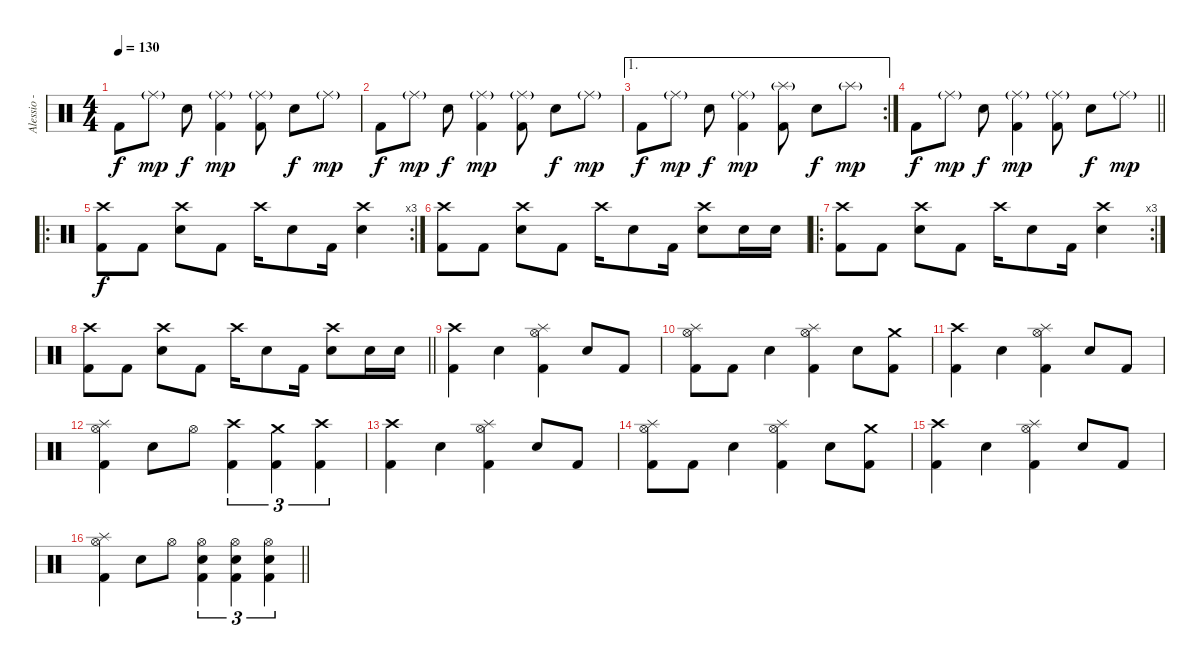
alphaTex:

\track ("Alessio - Drums" "Alessio - ") {instrument percussion}
\staff {score}
\articulation defaults
\ts (4 4)
\tempo 130
\clef neutral
\ks c "Kick (hit) 2".8{dy f} "Ride (middle)"{g}.8{dy mp} "Electric Snare (hit)".8{dy f}
("Ride (middle)"{g} "Kick (hit) 2").4{dy mp} ("Ride (middle)"{g} "Kick (hit) 2").8 "Electric Snare (hit)".8{dy f} "Ride (middle)"{g}.8{dy mp} |
"Kick (hit) 2".8{dy f} "Ride (middle)"{g}.8{dy mp} "Electric Snare (hit)".8{dy f} ("Ride (middle)"{g} "Kick (hit) 2").4{dy mp} ("Ride (middle)"{g} "Kick (hit) 2").8 "Electric Snare (hit)".8{dy f} "Ride (middle)"{g}.8{dy mp} |
\ae 1
\rc 2 "Kick (hit) 2".8{dy f} "Ride (middle)"{g}.8{dy mp} "Electric Snare (hit)".8{dy f}
("Ride (middle)"{g} "Kick (hit) 2").4{dy mp} ("Splash (hit)"{g} "Kick (hit) 2").8 "Electric Snare (hit)".8{dy f} "Splash (hit)"{g}.8{dy mp} |
\barLineRight lightlight "Kick (hit) 2".8{dy f} "Ride (middle)"{g}.8{dy mp} "Electric Snare (hit)".8{dy f}
("Ride (middle)"{g} "Kick (hit) 2").4{dy mp} ("Ride (middle)"{g} "Kick (hit) 2").8 "Electric Snare (hit)".8{dy f} "Ride (middle)"{g}.8{dy mp} |
\ro
\rc 3
\section ("" "")
("Crash high (hit)" "Kick (hit) 2").8{dy f} "Kick (hit) 2".8 ("Crash high (hit)" "Electric Snare (hit)").8 "Kick (hit) 2".8 "Crash high (hit)".16 "Electric Snare (hit)".8 "Kick (hit) 2".16 ("Crash high (hit)" "Electric Snare (hit)").4 |
("Crash high (hit)" "Kick (hit) 2").8 "Kick (hit) 2".8 ("Crash high (hit)" "Electric Snare (hit)").8 "Kick (hit) 2".8 "Crash high (hit)".16 "Electric Snare (hit)".8 "Kick (hit) 2".16 ("Crash high (hit)" "Electric Snare (hit)").8 "Electric Snare (hit)".16 "Electric Snare (hit)".16 |
\ro
\rc 3
("Crash high (hit)" "Kick (hit) 2").8 "Kick (hit) 2".8 ("Crash high (hit)" "Electric Snare (hit)").8 "Kick (hit) 2".8 "Crash high (hit)".16 "Electric Snare (hit)".8 "Kick (hit) 2".16 ("Crash high (hit)" "Electric Snare (hit)").4 |
\barLineRight lightlight
("Crash high (hit)" "Kick (hit) 2").8 "Kick (hit) 2".8 ("Crash high (hit)" "Electric Snare (hit)").8 "Kick (hit) 2".8 "Crash high (hit)".16 "Electric Snare (hit)".8 "Kick (hit) 2".16 ("Crash high (hit)" "Electric Snare (hit)").8 "Electric Snare (hit)".16 "Electric Snare (hit)".16 |
\section ("" "")
("Crash high (hit)" "Kick (hit) 2").4 "Electric Snare (hit)".4 ("Splash (hit)" "Hi-Hat (open)" "Kick (hit) 2").4 "Electric Snare (hit)".8 "Kick (hit) 2".8 |
("Splash (hit)" "Hi-Hat (open)" "Kick (hit) 2").8 "Kick (hit) 2".8 "Electric Snare (hit)".4 ("Splash (hit)" "Hi-Hat (open)" "Kick (hit) 2").4 "Electric Snare (hit)".8 ("Crash medium (hit)" "Kick (hit) 2").8 |
("Crash high (hit)" "Kick (hit) 2").4 "Electric Snare (hit)".4 ("Splash (hit)" "Hi-Hat (open)" "Kick (hit) 2").4 "Electric Snare (hit)".8 "Kick (hit) 2".8 |
("Splash (hit)" "Hi-Hat (open)" "Kick (hit) 2").4 "Electric Snare (hit)".8 "Hi-Hat (open)".8 ("Crash high (hit)" "Kick (hit) 2").4{tu (3 2)} ("Crash medium (hit)" "Kick (hit) 2").4{tu (3 2)} ("Crash high (hit)" "Kick (hit) 2").4{tu (3 2)} |
("Crash high (hit)" "Kick (hit) 2").4 "Electric Snare (hit)".4 ("Splash (hit)" "Hi-Hat (open)" "Kick (hit) 2").4 "Electric Snare (hit)".8 "Kick (hit) 2".8 |
("Splash (hit)" "Hi-Hat (open)" "Kick (hit) 2").8 "Kick (hit) 2".8 "Electric Snare (hit)".4 ("Splash (hit)" "Hi-Hat (open)" "Kick (hit) 2").4 "Electric Snare (hit)".8 ("Crash medium (hit)" "Kick (hit) 2").8 |
("Crash high (hit)" "Kick (hit) 2").4 "Electric Snare (hit)".4 ("Splash (hit)" "Hi-Hat (open)" "Kick (hit) 2").4 "Electric Snare (hit)".8 "Kick (hit) 2".8 |
\barLineRight lightlight
("Splash (hit)" "Hi-Hat (open)" "Kick (hit) 2").4 "Electric Snare (hit)".8 "Hi-Hat (open)".8 ("Hi-Hat (open)" "Electric Snare (hit)" "Kick (hit) 2").4{tu (3 2)} ("Hi-Hat (open)" "Electric Snare (hit)" "Kick (hit) 2").4{tu (3 2)} ("Hi-Hat (open)" "Electric Snare (hit)" "Kick (hit) 2").4{tu (3 2)}
